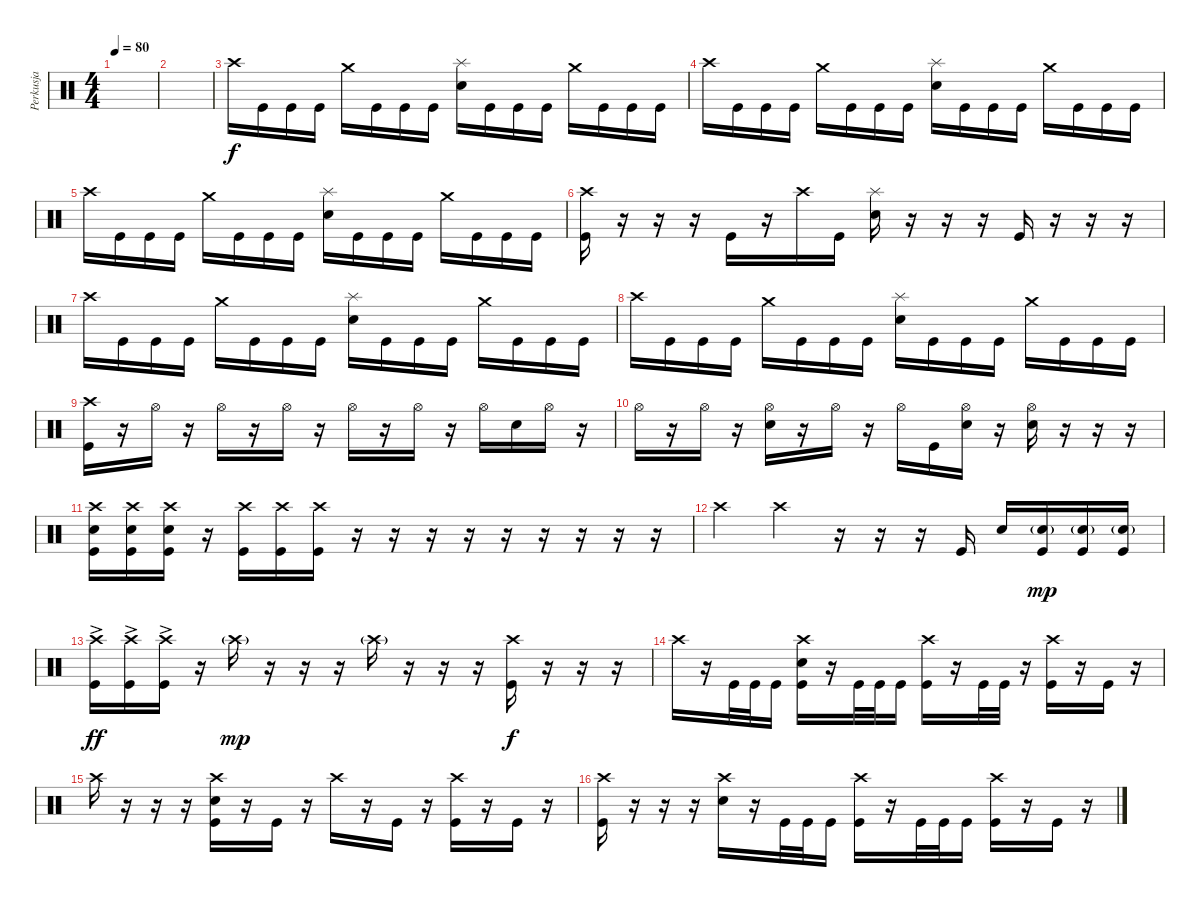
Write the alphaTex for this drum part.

\track ("Perkusja" "Perkusja") {instrument percussion}
\staff {score}
\articulation defaults
\ts (4 4)
\tempo 80
\clef neutral
\ks c
|
|
"Crash high (hit)".16 "Kick (hit)".16 "Kick (hit)".16 "Kick (hit)".16 "Crash medium (hit)".16 "Kick (hit)".16 "Kick (hit)".16 "Kick (hit)".16 ("Splash (hit)" "Electric Snare (hit)").16 "Kick (hit)".16 "Kick (hit)".16 "Kick (hit)".16 "Crash medium (hit)".16 "Kick (hit)".16 "Kick (hit)".16 "Kick (hit)".16 |
"Crash high (hit)".16 "Kick (hit)".16 "Kick (hit)".16 "Kick (hit)".16 "Crash medium (hit)".16 "Kick (hit)".16 "Kick (hit)".16 "Kick (hit)".16 ("Splash (hit)" "Electric Snare (hit)").16 "Kick (hit)".16 "Kick (hit)".16 "Kick (hit)".16 "Crash medium (hit)".16 "Kick (hit)".16 "Kick (hit)".16 "Kick (hit)".16 |
"Crash high (hit)".16 "Kick (hit)".16 "Kick (hit)".16 "Kick (hit)".16 "Crash medium (hit)".16 "Kick (hit)".16 "Kick (hit)".16 "Kick (hit)".16 ("Splash (hit)" "Electric Snare (hit)").16 "Kick (hit)".16 "Kick (hit)".16 "Kick (hit)".16 "Crash medium (hit)".16 "Kick (hit)".16 "Kick (hit)".16 "Kick (hit)".16 |
("Crash high (hit)" "Kick (hit)").16 r.16 r.16 r.16 "Kick (hit)".16 r.16 "Crash high (hit)".16 "Kick (hit)".16 ("Splash (hit)" "Electric Snare (hit)").16 r.16 r.16 r.16 "Kick (hit)".16 r.16 r.16 r.16 |
"Crash high (hit)".16 "Kick (hit)".16 "Kick (hit)".16 "Kick (hit)".16 "Crash medium (hit)".16 "Kick (hit)".16 "Kick (hit)".16 "Kick (hit)".16 ("Splash (hit)" "Electric Snare (hit)").16 "Kick (hit)".16 "Kick (hit)".16 "Kick (hit)".16 "Crash medium (hit)".16 "Kick (hit)".16 "Kick (hit)".16 "Kick (hit)".16 |
"Crash high (hit)".16 "Kick (hit)".16 "Kick (hit)".16 "Kick (hit)".16 "Crash medium (hit)".16 "Kick (hit)".16 "Kick (hit)".16 "Kick (hit)".16 ("Splash (hit)" "Electric Snare (hit)").16 "Kick (hit)".16 "Kick (hit)".16 "Kick (hit)".16 "Crash medium (hit)".16 "Kick (hit)".16 "Kick (hit)".16 "Kick (hit)".16 |
("Crash high (hit)" "Kick (hit)").16 r.16 "Hi-Hat (open)".16 r.16 "Hi-Hat (open)".16 r.16 "Hi-Hat (open)".16 r.16 "Hi-Hat (open)".16 r.16 "Hi-Hat (open)".16 r.16 "Hi-Hat (open)".16 "Electric Snare (hit)".16 "Hi-Hat (open)".16 r.16 |
"Hi-Hat (open)".16 r.16 "Hi-Hat (open)".16 r.16 ("Hi-Hat (open)" "Electric Snare (hit)").16 r.16 "Hi-Hat (open)".16 r.16 "Hi-Hat (open)".16 "Kick (hit)".16 ("Hi-Hat (open)" "Electric Snare (hit)").16 r.16 ("Hi-Hat (open)" "Electric Snare (hit)").16 r.16 r.16 r.16 |
("Crash high (hit)" "Electric Snare (hit)" "Kick (hit)").16 ("Crash high (hit)" "Electric Snare (hit)" "Kick (hit)").16 ("Crash high (hit)" "Electric Snare (hit)" "Kick (hit)").16 r.16 ("Crash high (hit)" "Kick (hit)").16 ("Crash high (hit)" "Kick (hit)").16 ("Crash high (hit)" "Kick (hit)").16 r.16 r.16 r.16 r.16 r.16 r.16 r.16 r.16 r.16 |
"Crash high (hit)".4 "Crash high (hit)".4 r.16 r.16 r.16 "Kick (hit)".16 "Electric Snare (hit)".16 ("Electric Snare (hit)"{g} "Kick (hit)").16{dy mp} ("Electric Snare (hit)"{g} "Kick (hit)").16 ("Electric Snare (hit)"{g} "Kick (hit)").16 |
("Crash high (hit)"{ac} "Kick (hit)").16{dy ff} ("Crash high (hit)"{ac} "Kick (hit)").16 ("Crash high (hit)"{ac} "Kick (hit)").16 r.16 "Crash high (hit)"{g}.16{dy mp} r.16 r.16 r.16 "Crash high (hit)"{g}.16 r.16 r.16 r.16 ("Crash high (hit)" "Kick (hit)").16{dy f} r.16 r.16 r.16 |
"Crash high (hit)".16 r.16 "Kick (hit)".32 "Kick (hit)".32 "Kick (hit)".16 ("Crash high (hit)" "Electric Snare (hit)" "Kick (hit)").16 r.16 "Kick (hit)".32 "Kick (hit)".32 "Kick (hit)".16 ("Crash high (hit)" "Kick (hit)").16 r.16 "Kick (hit)".32 "Kick (hit)".32 r.16 ("Crash high (hit)" "Kick (hit)").16 r.16 "Kick (hit)".16 r.16 |
"Crash high (hit)".16 r.16 r.16 r.16 ("Crash high (hit)" "Electric Snare (hit)" "Kick (hit)").16 r.16 "Kick (hit)".16 r.16 "Crash high (hit)".16 r.16 "Kick (hit)".16 r.16 ("Crash high (hit)" "Kick (hit)").16 r.16 "Kick (hit)".16 r.16 |
("Crash high (hit)" "Kick (hit)").16 r.16 r.16 r.16 ("Crash high (hit)" "Electric Snare (hit)").16 r.16 "Kick (hit)".32 "Kick (hit)".32 "Kick (hit)".16 ("Crash high (hit)" "Kick (hit)").16 r.16 "Kick (hit)".32 "Kick (hit)".32 "Kick (hit)".16 ("Crash high (hit)" "Kick (hit)").16 r.16 "Kick (hit)".16 r.16
